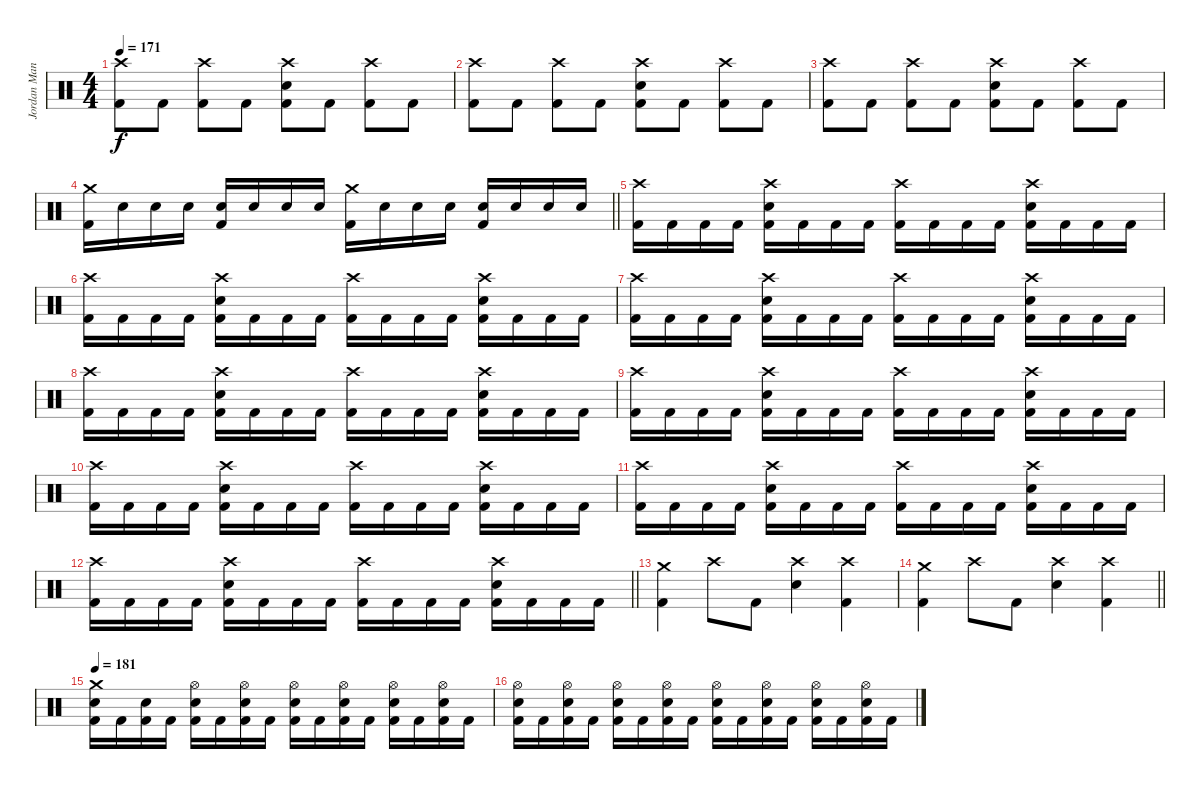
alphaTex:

\track ("Jordan Mancino" "Jordan Man") {instrument percussion}
\staff {score}
\articulation defaults
\ts (4 4)
\tempo 171
\clef neutral
\ks c
("Crash high (hit)" "Kick (hit) 2").8{dy f} "Kick (hit) 2".8 ("Crash high (hit)" "Kick (hit) 2").8 "Kick (hit) 2".8 ("Crash high (hit)" "Electric Snare (hit)" "Kick (hit) 2").8 "Kick (hit) 2".8 ("Crash high (hit)" "Kick (hit) 2").8 "Kick (hit) 2".8 |
("Crash high (hit)" "Kick (hit) 2").8 "Kick (hit) 2".8 ("Crash high (hit)" "Kick (hit) 2").8 "Kick (hit) 2".8 ("Crash high (hit)" "Electric Snare (hit)" "Kick (hit) 2").8 "Kick (hit) 2".8 ("Crash high (hit)" "Kick (hit) 2").8 "Kick (hit) 2".8 |
("Crash high (hit)" "Kick (hit) 2").8 "Kick (hit) 2".8 ("Crash high (hit)" "Kick (hit) 2").8 "Kick (hit) 2".8 ("Crash high (hit)" "Electric Snare (hit)" "Kick (hit) 2").8 "Kick (hit) 2".8 ("Crash high (hit)" "Kick (hit) 2").8 "Kick (hit) 2".8 |
\barLineRight lightlight
("Crash medium (hit)" "Kick (hit) 2").16 "Electric Snare (hit)".16 "Electric Snare (hit)".16 "Electric Snare (hit)".16 ("Electric Snare (hit)" "Kick (hit) 2").16 "Electric Snare (hit)".16 "Electric Snare (hit)".16 "Electric Snare (hit)".16 ("Crash medium (hit)" "Kick (hit) 2").16 "Electric Snare (hit)".16 "Electric Snare (hit)".16 "Electric Snare (hit)".16 ("Electric Snare (hit)" "Kick (hit) 2").16 "Electric Snare (hit)".16 "Electric Snare (hit)".16 "Electric Snare (hit)".16 |
\section ("" "")
("Crash high (hit)" "Kick (hit) 2").16 "Kick (hit) 2".16 "Kick (hit) 2".16 "Kick (hit) 2".16 ("Crash high (hit)" "Electric Snare (hit)" "Kick (hit) 2").16 "Kick (hit) 2".16 "Kick (hit) 2".16 "Kick (hit) 2".16 ("Crash high (hit)" "Kick (hit) 2").16 "Kick (hit) 2".16 "Kick (hit) 2".16 "Kick (hit) 2".16 ("Crash high (hit)" "Electric Snare (hit)" "Kick (hit) 2").16 "Kick (hit) 2".16 "Kick (hit) 2".16 "Kick (hit) 2".16 |
("Crash high (hit)" "Kick (hit) 2").16 "Kick (hit) 2".16 "Kick (hit) 2".16 "Kick (hit) 2".16 ("Crash high (hit)" "Electric Snare (hit)" "Kick (hit) 2").16 "Kick (hit) 2".16 "Kick (hit) 2".16 "Kick (hit) 2".16 ("Crash high (hit)" "Kick (hit) 2").16 "Kick (hit) 2".16 "Kick (hit) 2".16 "Kick (hit) 2".16 ("Crash high (hit)" "Electric Snare (hit)" "Kick (hit) 2").16 "Kick (hit) 2".16 "Kick (hit) 2".16 "Kick (hit) 2".16 |
("Crash high (hit)" "Kick (hit) 2").16 "Kick (hit) 2".16 "Kick (hit) 2".16 "Kick (hit) 2".16 ("Crash high (hit)" "Electric Snare (hit)" "Kick (hit) 2").16 "Kick (hit) 2".16 "Kick (hit) 2".16 "Kick (hit) 2".16 ("Crash high (hit)" "Kick (hit) 2").16 "Kick (hit) 2".16 "Kick (hit) 2".16 "Kick (hit) 2".16 ("Crash high (hit)" "Electric Snare (hit)" "Kick (hit) 2").16 "Kick (hit) 2".16 "Kick (hit) 2".16 "Kick (hit) 2".16 |
("Crash high (hit)" "Kick (hit) 2").16 "Kick (hit) 2".16 "Kick (hit) 2".16 "Kick (hit) 2".16 ("Crash high (hit)" "Electric Snare (hit)" "Kick (hit) 2").16 "Kick (hit) 2".16 "Kick (hit) 2".16 "Kick (hit) 2".16 ("Crash high (hit)" "Kick (hit) 2").16 "Kick (hit) 2".16 "Kick (hit) 2".16 "Kick (hit) 2".16 ("Crash high (hit)" "Electric Snare (hit)" "Kick (hit) 2").16 "Kick (hit) 2".16 "Kick (hit) 2".16 "Kick (hit) 2".16 |
("Crash high (hit)" "Kick (hit) 2").16 "Kick (hit) 2".16 "Kick (hit) 2".16 "Kick (hit) 2".16 ("Crash high (hit)" "Electric Snare (hit)" "Kick (hit) 2").16 "Kick (hit) 2".16 "Kick (hit) 2".16 "Kick (hit) 2".16 ("Crash high (hit)" "Kick (hit) 2").16 "Kick (hit) 2".16 "Kick (hit) 2".16 "Kick (hit) 2".16 ("Crash high (hit)" "Electric Snare (hit)" "Kick (hit) 2").16 "Kick (hit) 2".16 "Kick (hit) 2".16 "Kick (hit) 2".16 |
("Crash high (hit)" "Kick (hit) 2").16 "Kick (hit) 2".16 "Kick (hit) 2".16 "Kick (hit) 2".16 ("Crash high (hit)" "Electric Snare (hit)" "Kick (hit) 2").16 "Kick (hit) 2".16 "Kick (hit) 2".16 "Kick (hit) 2".16 ("Crash high (hit)" "Kick (hit) 2").16 "Kick (hit) 2".16 "Kick (hit) 2".16 "Kick (hit) 2".16 ("Crash high (hit)" "Electric Snare (hit)" "Kick (hit) 2").16 "Kick (hit) 2".16 "Kick (hit) 2".16 "Kick (hit) 2".16 |
("Crash high (hit)" "Kick (hit) 2").16 "Kick (hit) 2".16 "Kick (hit) 2".16 "Kick (hit) 2".16 ("Crash high (hit)" "Electric Snare (hit)" "Kick (hit) 2").16 "Kick (hit) 2".16 "Kick (hit) 2".16 "Kick (hit) 2".16 ("Crash high (hit)" "Kick (hit) 2").16 "Kick (hit) 2".16 "Kick (hit) 2".16 "Kick (hit) 2".16 ("Crash high (hit)" "Electric Snare (hit)" "Kick (hit) 2").16 "Kick (hit) 2".16 "Kick (hit) 2".16 "Kick (hit) 2".16 |
\barLineRight lightlight
("Crash high (hit)" "Kick (hit) 2").16 "Kick (hit) 2".16 "Kick (hit) 2".16 "Kick (hit) 2".16 ("Crash high (hit)" "Electric Snare (hit)" "Kick (hit) 2").16 "Kick (hit) 2".16 "Kick (hit) 2".16 "Kick (hit) 2".16 ("Crash high (hit)" "Kick (hit) 2").16 "Kick (hit) 2".16 "Kick (hit) 2".16 "Kick (hit) 2".16 ("Crash high (hit)" "Electric Snare (hit)" "Kick (hit) 2").16 "Kick (hit) 2".16 "Kick (hit) 2".16 "Kick (hit) 2".16 |
\section ("" "")
("Crash medium (hit)" "Kick (hit) 2").4 "Crash high (hit)".8 "Kick (hit) 2".8 ("Crash high (hit)" "Electric Snare (hit)").4 ("Crash high (hit)" "Kick (hit) 2").4 |
\barLineRight lightlight
("Crash medium (hit)" "Kick (hit) 2").4 "Crash high (hit)".8 "Kick (hit) 2".8 ("Crash high (hit)" "Electric Snare (hit)").4 ("Crash high (hit)" "Kick (hit) 2").4 |
\section ("" "")
\tempo 181
("Crash medium (hit)" "Electric Snare (hit)" "Kick (hit) 2").16 "Kick (hit) 2".16 ("Electric Snare (hit)" "Kick (hit) 2").16 "Kick (hit) 2".16 ("Hi-Hat (open)" "Electric Snare (hit)" "Kick (hit) 2").16 "Kick (hit) 2".16 ("Hi-Hat (open)" "Electric Snare (hit)" "Kick (hit) 2").16 "Kick (hit) 2".16 ("Hi-Hat (open)" "Electric Snare (hit)" "Kick (hit) 2").16 "Kick (hit) 2".16 ("Hi-Hat (open)" "Electric Snare (hit)" "Kick (hit) 2").16 "Kick (hit) 2".16 ("Hi-Hat (open)" "Electric Snare (hit)" "Kick (hit) 2").16 "Kick (hit) 2".16 ("Hi-Hat (open)" "Electric Snare (hit)" "Kick (hit) 2").16 "Kick (hit) 2".16 |
("Hi-Hat (open)" "Electric Snare (hit)" "Kick (hit) 2").16 "Kick (hit) 2".16 ("Hi-Hat (open)" "Electric Snare (hit)" "Kick (hit) 2").16 "Kick (hit) 2".16 ("Hi-Hat (open)" "Electric Snare (hit)" "Kick (hit) 2").16 "Kick (hit) 2".16 ("Hi-Hat (open)" "Electric Snare (hit)" "Kick (hit) 2").16 "Kick (hit) 2".16 ("Hi-Hat (open)" "Electric Snare (hit)" "Kick (hit) 2").16 "Kick (hit) 2".16 ("Hi-Hat (open)" "Electric Snare (hit)" "Kick (hit) 2").16 "Kick (hit) 2".16 ("Hi-Hat (open)" "Electric Snare (hit)" "Kick (hit) 2").16 "Kick (hit) 2".16 ("Hi-Hat (open)" "Electric Snare (hit)" "Kick (hit) 2").16 "Kick (hit) 2".16
